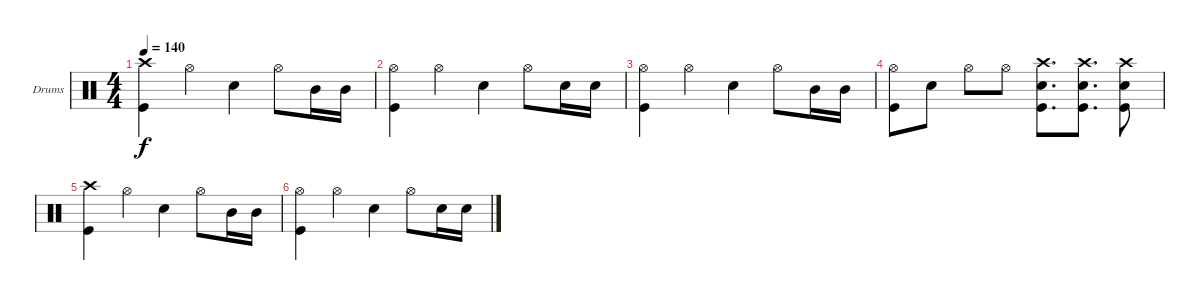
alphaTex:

\bracketExtendMode groupsimilarinstruments
\firstSystemTrackNameOrientation horizontal
\otherSystemsTrackNameOrientation horizontal
\track ("Batterie - Anders Johansson" "Drums") {instrument percussion}
\staff {score}
\articulation defaults
\ts (4 4)
\tempo 140
\clef neutral
\ks c
("Crash high (hit)" "Kick (hit)").4{dy f} "Hi-Hat (open)".4 "Snare (hit) 2".4 "Hi-Hat (open)".8 "Mid Tom (hit)".16 "Mid Tom (hit)".16 |
("Hi-Hat (open)" "Kick (hit)").4 "Hi-Hat (open)".4 "Snare (hit) 2".4 "Hi-Hat (open)".8 "Snare (hit) 2".16 "Snare (hit) 2".16 |
("Hi-Hat (open)" "Kick (hit)").4 "Hi-Hat (open)".4 "Snare (hit) 2".4 "Hi-Hat (open)".8 "Mid Tom (hit)".16 "Mid Tom (hit)".16 |
("Hi-Hat (open)" "Kick (hit)").8 "Snare (hit) 2".8 "Hi-Hat (open)".8 "Hi-Hat (open)".8 ("Crash high (hit)" "Snare (hit) 2" "Kick (hit)").8{d} ("Crash high (hit)" "Snare (hit) 2" "Kick (hit)").8{d} ("Crash high (hit)" "Snare (hit) 2" "Kick (hit)").8 |
("Crash high (hit)" "Kick (hit)").4 "Hi-Hat (open)".4 "Snare (hit) 2".4 "Hi-Hat (open)".8 "Mid Tom (hit)".16 "Mid Tom (hit)".16 |
("Hi-Hat (open)" "Kick (hit)").4 "Hi-Hat (open)".4 "Snare (hit) 2".4 "Hi-Hat (open)".8 "Snare (hit) 2".16 "Snare (hit) 2".16
